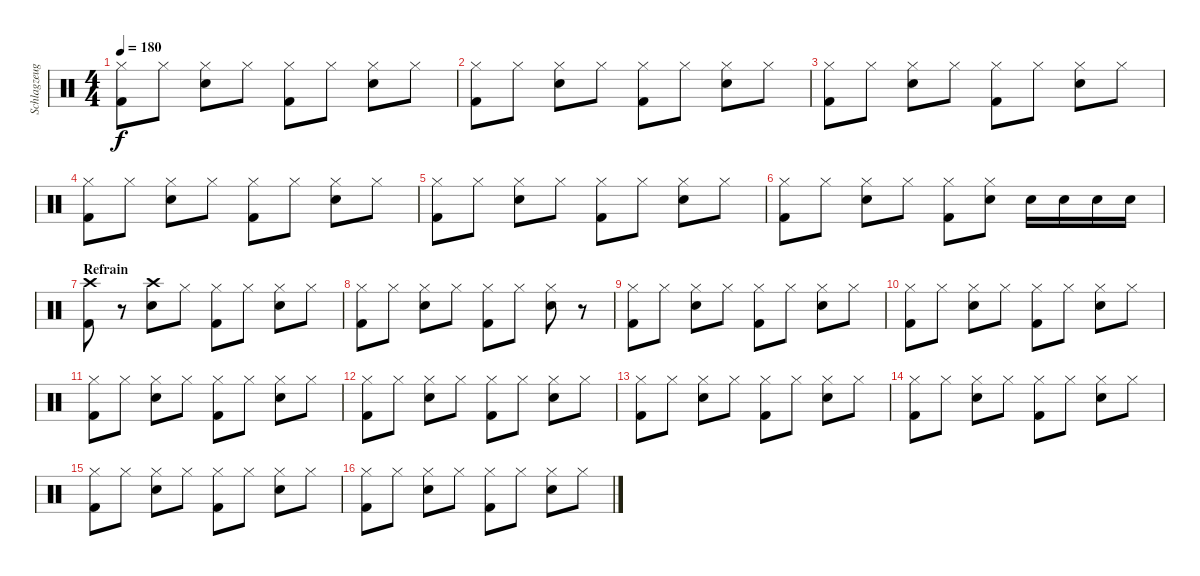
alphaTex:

\track ("Schlagzeug" "Schlagzeug") {instrument percussion}
\staff {score}
\articulation defaults
\ts (4 4)
\tempo 180
\clef neutral
\ks c
("Hi-Hat (closed)" "Kick (hit) 2").8{dy f} "Hi-Hat (closed)".8 ("Hi-Hat (closed)" "Snare (hit) 2").8 "Hi-Hat (closed)".8 ("Hi-Hat (closed)" "Kick (hit) 2").8 "Hi-Hat (closed)".8 ("Hi-Hat (closed)" "Snare (hit) 2").8 "Hi-Hat (closed)".8 |
("Hi-Hat (closed)" "Kick (hit) 2").8 "Hi-Hat (closed)".8 ("Hi-Hat (closed)" "Snare (hit) 2").8 "Hi-Hat (closed)".8 ("Hi-Hat (closed)" "Kick (hit) 2").8 "Hi-Hat (closed)".8 ("Hi-Hat (closed)" "Snare (hit) 2").8 "Hi-Hat (closed)".8 |
("Hi-Hat (closed)" "Kick (hit) 2").8 "Hi-Hat (closed)".8 ("Hi-Hat (closed)" "Snare (hit) 2").8 "Hi-Hat (closed)".8 ("Hi-Hat (closed)" "Kick (hit) 2").8 "Hi-Hat (closed)".8 ("Hi-Hat (closed)" "Snare (hit) 2").8 "Hi-Hat (closed)".8 |
("Hi-Hat (closed)" "Kick (hit) 2").8 "Hi-Hat (closed)".8 ("Hi-Hat (closed)" "Snare (hit) 2").8 "Hi-Hat (closed)".8 ("Hi-Hat (closed)" "Kick (hit) 2").8 "Hi-Hat (closed)".8 ("Hi-Hat (closed)" "Snare (hit) 2").8 "Hi-Hat (closed)".8 |
("Hi-Hat (closed)" "Kick (hit) 2").8 "Hi-Hat (closed)".8 ("Hi-Hat (closed)" "Snare (hit) 2").8 "Hi-Hat (closed)".8 ("Hi-Hat (closed)" "Kick (hit) 2").8 "Hi-Hat (closed)".8 ("Hi-Hat (closed)" "Snare (hit) 2").8 "Hi-Hat (closed)".8 |
("Hi-Hat (closed)" "Kick (hit) 2").8 "Hi-Hat (closed)".8 ("Hi-Hat (closed)" "Snare (hit) 2").8 "Hi-Hat (closed)".8 ("Hi-Hat (closed)" "Kick (hit) 2").8 ("Hi-Hat (closed)" "Snare (hit) 2").8 "Snare (hit) 2".16 "Snare (hit) 2".16 "Snare (hit) 2".16 "Snare (hit) 2".16 |
\section ("" "Refrain")
("Kick (hit) 2" "Crash high (hit)").8 r.8 ("Snare (hit) 2" "Crash high (hit)").8 "Hi-Hat (closed)".8 ("Kick (hit) 2" "Hi-Hat (closed)").8 "Hi-Hat (closed)".8 ("Snare (hit) 2" "Hi-Hat (closed)").8 "Hi-Hat (closed)".8 |
("Kick (hit) 2" "Hi-Hat (closed)").8 "Hi-Hat (closed)".8 ("Hi-Hat (closed)" "Snare (hit) 2").8 "Hi-Hat (closed)".8 ("Hi-Hat (closed)" "Kick (hit) 2").8 "Hi-Hat (closed)".8 ("Hi-Hat (closed)" "Snare (hit) 2").8 r.8 |
("Hi-Hat (closed)" "Kick (hit) 2").8 "Hi-Hat (closed)".8 ("Hi-Hat (closed)" "Snare (hit) 2").8 "Hi-Hat (closed)".8 ("Hi-Hat (closed)" "Kick (hit) 2").8 "Hi-Hat (closed)".8 ("Hi-Hat (closed)" "Snare (hit) 2").8 "Hi-Hat (closed)".8 |
("Hi-Hat (closed)" "Kick (hit) 2").8 "Hi-Hat (closed)".8 ("Hi-Hat (closed)" "Snare (hit) 2").8 "Hi-Hat (closed)".8 ("Hi-Hat (closed)" "Kick (hit) 2").8 "Hi-Hat (closed)".8 ("Hi-Hat (closed)" "Snare (hit) 2").8 "Hi-Hat (closed)".8 |
("Hi-Hat (closed)" "Kick (hit) 2").8 "Hi-Hat (closed)".8 ("Hi-Hat (closed)" "Snare (hit) 2").8 "Hi-Hat (closed)".8 ("Hi-Hat (closed)" "Kick (hit) 2").8 "Hi-Hat (closed)".8 ("Hi-Hat (closed)" "Snare (hit) 2").8 "Hi-Hat (closed)".8 |
("Hi-Hat (closed)" "Kick (hit) 2").8 "Hi-Hat (closed)".8 ("Hi-Hat (closed)" "Snare (hit) 2").8 "Hi-Hat (closed)".8 ("Hi-Hat (closed)" "Kick (hit) 2").8 "Hi-Hat (closed)".8 ("Hi-Hat (closed)" "Snare (hit) 2").8 "Hi-Hat (closed)".8 |
("Hi-Hat (closed)" "Kick (hit) 2").8 "Hi-Hat (closed)".8 ("Hi-Hat (closed)" "Snare (hit) 2").8 "Hi-Hat (closed)".8 ("Hi-Hat (closed)" "Kick (hit) 2").8 "Hi-Hat (closed)".8 ("Hi-Hat (closed)" "Snare (hit) 2").8 "Hi-Hat (closed)".8 |
("Hi-Hat (closed)" "Kick (hit) 2").8 "Hi-Hat (closed)".8 ("Hi-Hat (closed)" "Snare (hit) 2").8 "Hi-Hat (closed)".8 ("Hi-Hat (closed)" "Kick (hit) 2").8 "Hi-Hat (closed)".8 ("Hi-Hat (closed)" "Snare (hit) 2").8 "Hi-Hat (closed)".8 |
("Hi-Hat (closed)" "Kick (hit) 2").8 "Hi-Hat (closed)".8 ("Hi-Hat (closed)" "Snare (hit) 2").8 "Hi-Hat (closed)".8 ("Hi-Hat (closed)" "Kick (hit) 2").8 "Hi-Hat (closed)".8 ("Hi-Hat (closed)" "Snare (hit) 2").8 "Hi-Hat (closed)".8 |
("Hi-Hat (closed)" "Kick (hit) 2").8 "Hi-Hat (closed)".8 ("Hi-Hat (closed)" "Snare (hit) 2").8 "Hi-Hat (closed)".8 ("Hi-Hat (closed)" "Kick (hit) 2").8 "Hi-Hat (closed)".8 ("Hi-Hat (closed)" "Snare (hit) 2").8 "Hi-Hat (closed)".8
